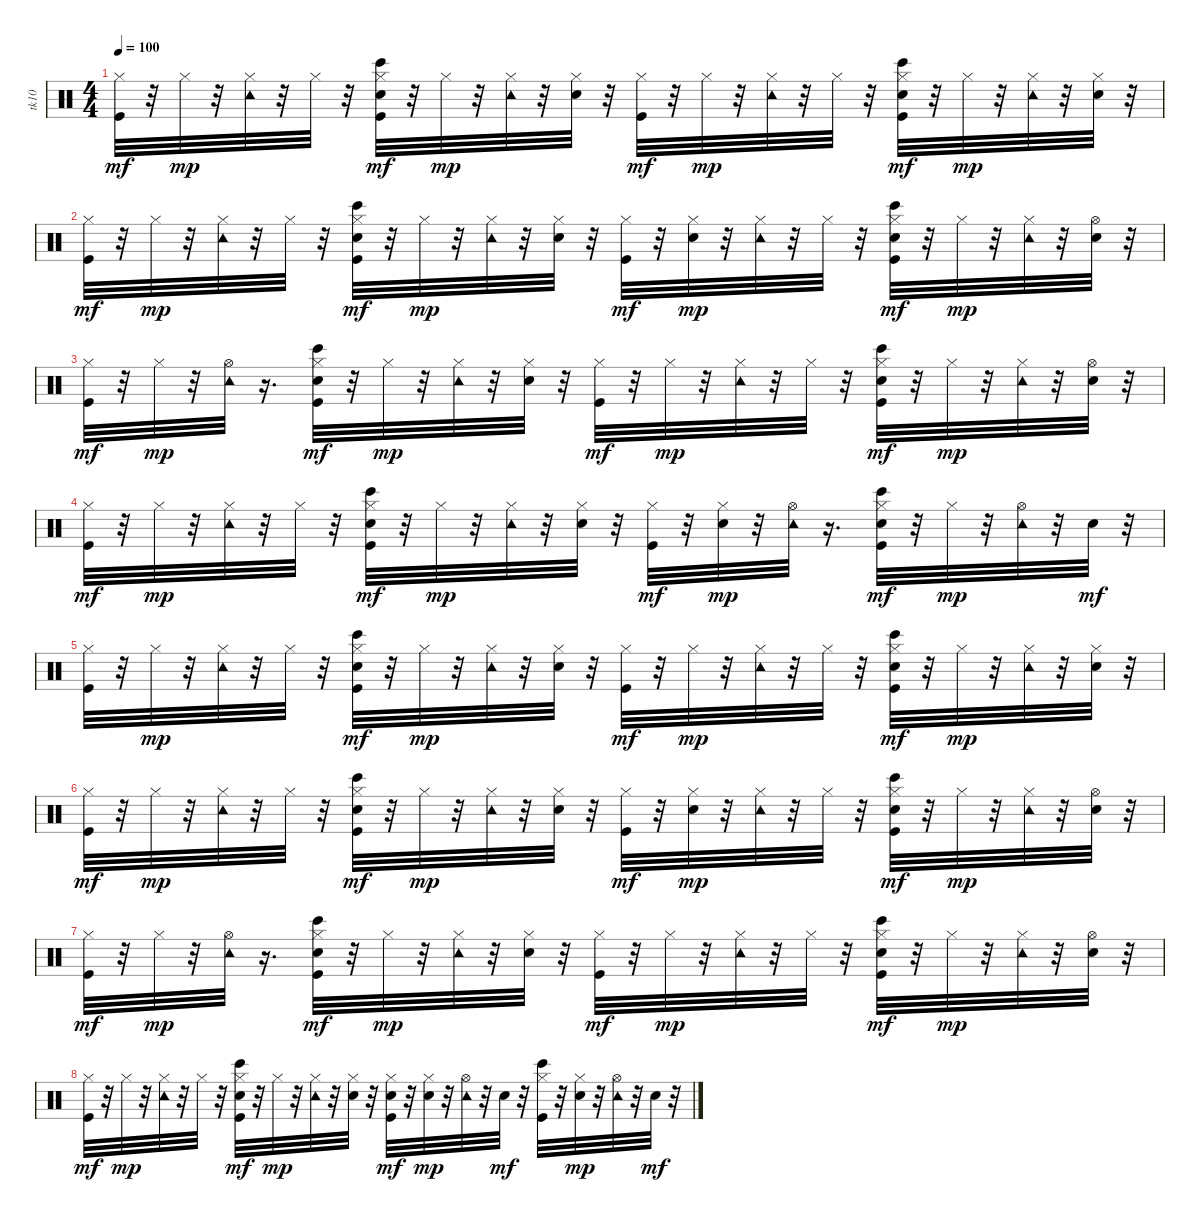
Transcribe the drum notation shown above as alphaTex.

\track ("tk10" "tk10") {instrument percussion}
\staff {score}
\articulation defaults
\ts (4 4)
\tempo 100
\clef neutral
\ks c
("Kick (hit)" "Hi-Hat (closed)").32{dy mf} r.32 "Hi-Hat (closed)".32{dy mp} r.32 ("Hi-Hat (closed)" "Tambourine (hit)").32 r.32 "Hi-Hat (closed)".32 r.32 ("Kick (hit)" "Snare (hit) 2" "Hi-Hat (closed)" "Bongo High (hit)").32{dy mf} r.32 "Hi-Hat (closed)".32{dy mp} r.32 ("Hi-Hat (closed)" "Tambourine (hit)").32 r.32 ("Snare (hit) 2" "Hi-Hat (closed)").32 r.32 ("Kick (hit)" "Hi-Hat (closed)").32{dy mf} r.32 "Hi-Hat (closed)".32{dy mp} r.32 ("Hi-Hat (closed)" "Tambourine (hit)").32 r.32 "Hi-Hat (closed)".32 r.32 ("Kick (hit)" "Snare (hit) 2" "Hi-Hat (closed)" "Bongo High (hit)").32{dy mf} r.32 "Hi-Hat (closed)".32{dy mp} r.32 ("Hi-Hat (closed)" "Tambourine (hit)").32 r.32 ("Snare (hit) 2" "Hi-Hat (closed)").32 r.32 |
("Kick (hit)" "Hi-Hat (closed)").32{dy mf} r.32 "Hi-Hat (closed)".32{dy mp} r.32 ("Hi-Hat (closed)" "Tambourine (hit)").32 r.32 "Hi-Hat (closed)".32 r.32 ("Kick (hit)" "Snare (hit) 2" "Hi-Hat (closed)" "Bongo High (hit)").32{dy mf} r.32 "Hi-Hat (closed)".32{dy mp} r.32 ("Hi-Hat (closed)" "Tambourine (hit)").32 r.32 ("Snare (hit) 2" "Hi-Hat (closed)").32 r.32 ("Kick (hit)" "Hi-Hat (closed)").32{dy mf} r.32 ("Snare (hit) 2" "Hi-Hat (closed)").32{dy mp} r.32 ("Hi-Hat (closed)" "Tambourine (hit)").32 r.32 "Hi-Hat (closed)".32 r.32 ("Kick (hit)" "Snare (hit) 2" "Hi-Hat (closed)" "Bongo High (hit)").32{dy mf} r.32 "Hi-Hat (closed)".32{dy mp} r.32 ("Hi-Hat (closed)" "Tambourine (hit)").32 r.32 ("Snare (hit) 2" "Hi-Hat (open)").32 r.32 |
("Kick (hit)" "Hi-Hat (closed)").32{dy mf} r.32 "Hi-Hat (closed)".32{dy mp} r.32 ("Hi-Hat (open)" "Tambourine (hit)").32 r.16{d} ("Kick (hit)" "Snare (hit) 2" "Hi-Hat (closed)" "Bongo High (hit)").32{dy mf} r.32 "Hi-Hat (closed)".32{dy mp} r.32 ("Hi-Hat (closed)" "Tambourine (hit)").32 r.32 ("Snare (hit) 2" "Hi-Hat (closed)").32 r.32 ("Kick (hit)" "Hi-Hat (closed)").32{dy mf} r.32 "Hi-Hat (closed)".32{dy mp} r.32 ("Hi-Hat (closed)" "Tambourine (hit)").32 r.32 "Hi-Hat (closed)".32 r.32 ("Kick (hit)" "Snare (hit) 2" "Hi-Hat (closed)" "Bongo High (hit)").32{dy mf} r.32 "Hi-Hat (closed)".32{dy mp} r.32 ("Hi-Hat (closed)" "Tambourine (hit)").32 r.32 ("Snare (hit) 2" "Hi-Hat (open)").32 r.32 |
("Kick (hit)" "Hi-Hat (closed)").32{dy mf} r.32 "Hi-Hat (closed)".32{dy mp} r.32 ("Hi-Hat (closed)" "Tambourine (hit)").32 r.32 "Hi-Hat (closed)".32 r.32 ("Kick (hit)" "Snare (hit) 2" "Hi-Hat (closed)" "Bongo High (hit)").32{dy mf} r.32 "Hi-Hat (closed)".32{dy mp} r.32 ("Hi-Hat (closed)" "Tambourine (hit)").32 r.32 ("Snare (hit) 2" "Hi-Hat (closed)").32 r.32 ("Kick (hit)" "Hi-Hat (closed)").32{dy mf} r.32 ("Snare (hit) 2" "Hi-Hat (closed)").32{dy mp} r.32 ("Hi-Hat (open)" "Tambourine (hit)").32 r.16{d} ("Kick (hit)" "Snare (hit) 2" "Hi-Hat (closed)" "Bongo High (hit)").32{dy mf} r.32 "Hi-Hat (closed)".32{dy mp} r.32 ("Hi-Hat (open)" "Tambourine (hit)").32 r.32 "Snare (hit) 2".32{dy mf} r.32 |
("Kick (hit)" "Hi-Hat (closed)").32 r.32 "Hi-Hat (closed)".32{dy mp} r.32 ("Hi-Hat (closed)" "Tambourine (hit)").32 r.32 "Hi-Hat (closed)".32 r.32 ("Kick (hit)" "Snare (hit) 2" "Hi-Hat (closed)" "Bongo High (hit)").32{dy mf} r.32 "Hi-Hat (closed)".32{dy mp} r.32 ("Hi-Hat (closed)" "Tambourine (hit)").32 r.32 ("Snare (hit) 2" "Hi-Hat (closed)").32 r.32 ("Kick (hit)" "Hi-Hat (closed)").32{dy mf} r.32 "Hi-Hat (closed)".32{dy mp} r.32 ("Hi-Hat (closed)" "Tambourine (hit)").32 r.32 "Hi-Hat (closed)".32 r.32 ("Kick (hit)" "Snare (hit) 2" "Hi-Hat (closed)" "Bongo High (hit)").32{dy mf} r.32 "Hi-Hat (closed)".32{dy mp} r.32 ("Hi-Hat (closed)" "Tambourine (hit)").32 r.32 ("Snare (hit) 2" "Hi-Hat (closed)").32 r.32 |
("Kick (hit)" "Hi-Hat (closed)").32{dy mf} r.32 "Hi-Hat (closed)".32{dy mp} r.32 ("Hi-Hat (closed)" "Tambourine (hit)").32 r.32 "Hi-Hat (closed)".32 r.32 ("Kick (hit)" "Snare (hit) 2" "Hi-Hat (closed)" "Bongo High (hit)").32{dy mf} r.32 "Hi-Hat (closed)".32{dy mp} r.32 ("Hi-Hat (closed)" "Tambourine (hit)").32 r.32 ("Snare (hit) 2" "Hi-Hat (closed)").32 r.32 ("Kick (hit)" "Hi-Hat (closed)").32{dy mf} r.32 ("Snare (hit) 2" "Hi-Hat (closed)").32{dy mp} r.32 ("Hi-Hat (closed)" "Tambourine (hit)").32 r.32 "Hi-Hat (closed)".32 r.32 ("Kick (hit)" "Snare (hit) 2" "Hi-Hat (closed)" "Bongo High (hit)").32{dy mf} r.32 "Hi-Hat (closed)".32{dy mp} r.32 ("Hi-Hat (closed)" "Tambourine (hit)").32 r.32 ("Snare (hit) 2" "Hi-Hat (open)").32 r.32 |
("Kick (hit)" "Hi-Hat (closed)").32{dy mf} r.32 "Hi-Hat (closed)".32{dy mp} r.32 ("Hi-Hat (open)" "Tambourine (hit)").32 r.16{d} ("Kick (hit)" "Snare (hit) 2" "Hi-Hat (closed)" "Bongo High (hit)").32{dy mf} r.32 "Hi-Hat (closed)".32{dy mp} r.32 ("Hi-Hat (closed)" "Tambourine (hit)").32 r.32 ("Snare (hit) 2" "Hi-Hat (closed)").32 r.32 ("Kick (hit)" "Hi-Hat (closed)").32{dy mf} r.32 "Hi-Hat (closed)".32{dy mp} r.32 ("Hi-Hat (closed)" "Tambourine (hit)").32 r.32 "Hi-Hat (closed)".32 r.32 ("Kick (hit)" "Snare (hit) 2" "Hi-Hat (closed)" "Bongo High (hit)").32{dy mf} r.32 "Hi-Hat (closed)".32{dy mp} r.32 ("Hi-Hat (closed)" "Tambourine (hit)").32 r.32 ("Snare (hit) 2" "Hi-Hat (open)").32 r.32 |
("Kick (hit)" "Hi-Hat (closed)").32{dy mf} r.32 "Hi-Hat (closed)".32{dy mp} r.32 ("Hi-Hat (closed)" "Tambourine (hit)").32 r.32 "Hi-Hat (closed)".32 r.32 ("Kick (hit)" "Snare (hit) 2" "Hi-Hat (closed)" "Bongo High (hit)").32{dy mf} r.32 "Hi-Hat (closed)".32{dy mp} r.32 ("Hi-Hat (closed)" "Tambourine (hit)").32 r.32 ("Snare (hit) 2" "Hi-Hat (closed)").32 r.32 ("Kick (hit)" "Snare (hit) 2" "Hi-Hat (closed)").32{dy mf} r.32 ("Snare (hit) 2" "Hi-Hat (closed)").32{dy mp} r.32 ("Hi-Hat (open)" "Tambourine (hit)").32 r.32 "Snare (hit) 2".32{dy mf} r.32 ("Kick (hit)" "Hi-Hat (closed)" "Bongo High (hit)").32 r.32 ("Snare (hit) 2" "Hi-Hat (closed)").32{dy mp} r.32 ("Hi-Hat (open)" "Tambourine (hit)").32 r.32 "Snare (hit) 2".32{dy mf} r.32
